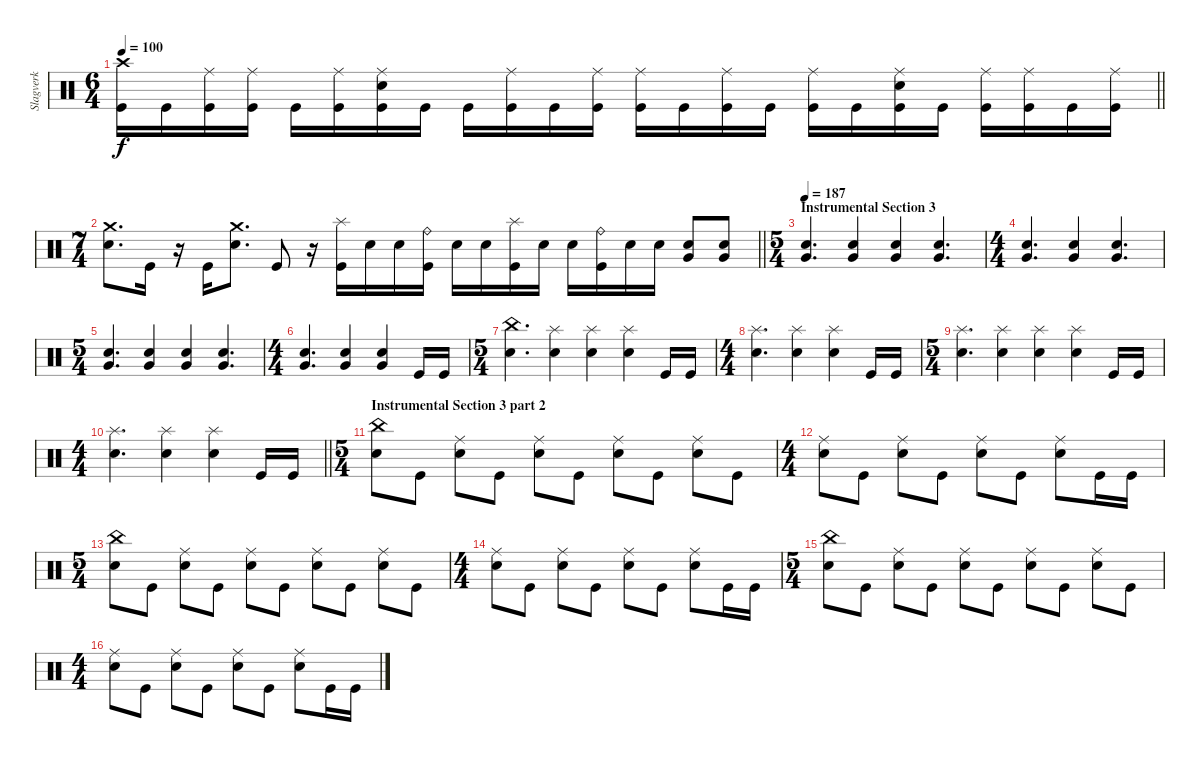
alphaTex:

\track ("Slagverk" "Slagverk") {instrument percussion}
\staff {score}
\articulation defaults
\ts (6 4)
\tempo 100
\clef neutral
\barLineRight lightlight
\ks c
("Crash high (hit)" "Kick (hit)").16{dy f} "Kick (hit)".16 ("Ride (middle)" "Kick (hit)").16 ("Ride (middle)" "Kick (hit)").16 "Kick (hit)".16 ("Ride (middle)" "Kick (hit)").16 ("Ride (middle)" "Kick (hit)" "Electric Snare (hit)").16 "Kick (hit)".16 "Kick (hit)".16 ("Ride (middle)" "Kick (hit)").16 "Kick (hit)".16 ("Ride (middle)" "Kick (hit)").16 ("Ride (middle)" "Kick (hit)").16 "Kick (hit)".16 ("Ride (middle)" "Kick (hit)").16 "Kick (hit)".16 ("Ride (middle)" "Kick (hit)").16 "Kick (hit)".16 ("Ride (middle)" "Kick (hit)" "Electric Snare (hit)").16 "Kick (hit)".16 ("Ride (middle)" "Kick (hit)").16 ("Ride (middle)" "Kick (hit)").16 "Kick (hit)".16 ("Ride (middle)" "Kick (hit)").16 |
\ts (7 4)
\section ("" "")
\barLineRight lightlight
("Electric Snare (hit)" "Crash medium (hit)").8{d} "Kick (hit)".16 r.16 "Kick (hit)".16 ("Crash medium (hit)" "Electric Snare (hit)").8{d} "Kick (hit)".8 r.16 ("Splash (hit)" "Kick (hit)").16 "Electric Snare (hit)".16 "Electric Snare (hit)".16 ("Ride (bell)" "Kick (hit)").16 "Electric Snare (hit)".16 "Electric Snare (hit)".16 ("Splash (hit)" "Kick (hit)").16 "Electric Snare (hit)".16 "Electric Snare (hit)".16 ("Ride (bell)" "Kick (hit)").16 "Electric Snare (hit)".16 "Electric Snare (hit)".16 ("Electric Snare (hit)" "Very Low Tom (hit)").8 ("Electric Snare (hit)" "Very Low Tom (hit)").8 |
\ts (5 4)
\section ("" "Instrumental Section 3")
\tempo 187
("Electric Snare (hit)" "Very Low Tom (hit)").4{d} ("Electric Snare (hit)" "Very Low Tom (hit)").4 ("Electric Snare (hit)" "Very Low Tom (hit)").4 ("Electric Snare (hit)" "Very Low Tom (hit)").4{d} |
\ts (4 4)
("Electric Snare (hit)" "Very Low Tom (hit)").4{d} ("Electric Snare (hit)" "Very Low Tom (hit)").4 ("Electric Snare (hit)" "Very Low Tom (hit)").4{d} |
\ts (5 4)
("Electric Snare (hit)" "Very Low Tom (hit)").4{d} ("Electric Snare (hit)" "Very Low Tom (hit)").4 ("Electric Snare (hit)" "Very Low Tom (hit)").4 ("Electric Snare (hit)" "Very Low Tom (hit)").4{d} |
\ts (4 4)
("Electric Snare (hit)" "Very Low Tom (hit)").4{d} ("Electric Snare (hit)" "Very Low Tom (hit)").4 ("Electric Snare (hit)" "Very Low Tom (hit)").4 "Kick (hit)".16 "Kick (hit)".16 |
\ts (5 4)
("China (hit)" "Electric Snare (hit)").4{d} ("Splash (hit)" "Electric Snare (hit)").4 ("Splash (hit)" "Electric Snare (hit)").4 ("Splash (hit)" "Electric Snare (hit)").4 "Kick (hit)".16 "Kick (hit)".16 |
\ts (4 4)
("Splash (hit)" "Electric Snare (hit)").4{d} ("Splash (hit)" "Electric Snare (hit)").4 ("Splash (hit)" "Electric Snare (hit)").4 "Kick (hit)".16 "Kick (hit)".16 |
\ts (5 4)
("Splash (hit)" "Electric Snare (hit)").4{d} ("Splash (hit)" "Electric Snare (hit)").4 ("Splash (hit)" "Electric Snare (hit)").4 ("Splash (hit)" "Electric Snare (hit)").4 "Kick (hit)".16 "Kick (hit)".16 |
\ts (4 4)
\barLineRight lightlight
("Splash (hit)" "Electric Snare (hit)").4{d} ("Splash (hit)" "Electric Snare (hit)").4 ("Splash (hit)" "Electric Snare (hit)").4 "Kick (hit)".16 "Kick (hit)".16 |
\ts (5 4)
\section ("" "Instrumental Section 3 part 2")
("China (hit)" "Electric Snare (hit)").8 "Kick (hit)".8 ("Ride (middle)" "Electric Snare (hit)").8 "Kick (hit)".8 ("Ride (middle)" "Electric Snare (hit)").8 "Kick (hit)".8 ("Ride (middle)" "Electric Snare (hit)").8 "Kick (hit)".8 ("Ride (middle)" "Electric Snare (hit)").8 "Kick (hit)".8 |
\ts (4 4)
("Ride (middle)" "Electric Snare (hit)").8 "Kick (hit)".8 ("Ride (middle)" "Electric Snare (hit)").8 "Kick (hit)".8 ("Ride (middle)" "Electric Snare (hit)").8 "Kick (hit)".8 ("Ride (middle)" "Electric Snare (hit)").8 "Kick (hit)".16 "Kick (hit)".16 |
\ts (5 4)
("China (hit)" "Electric Snare (hit)").8 "Kick (hit)".8 ("Ride (middle)" "Electric Snare (hit)").8 "Kick (hit)".8 ("Ride (middle)" "Electric Snare (hit)").8 "Kick (hit)".8 ("Ride (middle)" "Electric Snare (hit)").8 "Kick (hit)".8 ("Ride (middle)" "Electric Snare (hit)").8 "Kick (hit)".8 |
\ts (4 4)
("Ride (middle)" "Electric Snare (hit)").8 "Kick (hit)".8 ("Ride (middle)" "Electric Snare (hit)").8 "Kick (hit)".8 ("Ride (middle)" "Electric Snare (hit)").8 "Kick (hit)".8 ("Ride (middle)" "Electric Snare (hit)").8 "Kick (hit)".16 "Kick (hit)".16 |
\ts (5 4)
("China (hit)" "Electric Snare (hit)").8 "Kick (hit)".8 ("Ride (middle)" "Electric Snare (hit)").8 "Kick (hit)".8 ("Ride (middle)" "Electric Snare (hit)").8 "Kick (hit)".8 ("Ride (middle)" "Electric Snare (hit)").8 "Kick (hit)".8 ("Ride (middle)" "Electric Snare (hit)").8 "Kick (hit)".8 |
\ts (4 4)
("Ride (middle)" "Electric Snare (hit)").8 "Kick (hit)".8 ("Ride (middle)" "Electric Snare (hit)").8 "Kick (hit)".8 ("Ride (middle)" "Electric Snare (hit)").8 "Kick (hit)".8 ("Ride (middle)" "Electric Snare (hit)").8 "Kick (hit)".16 "Kick (hit)".16
